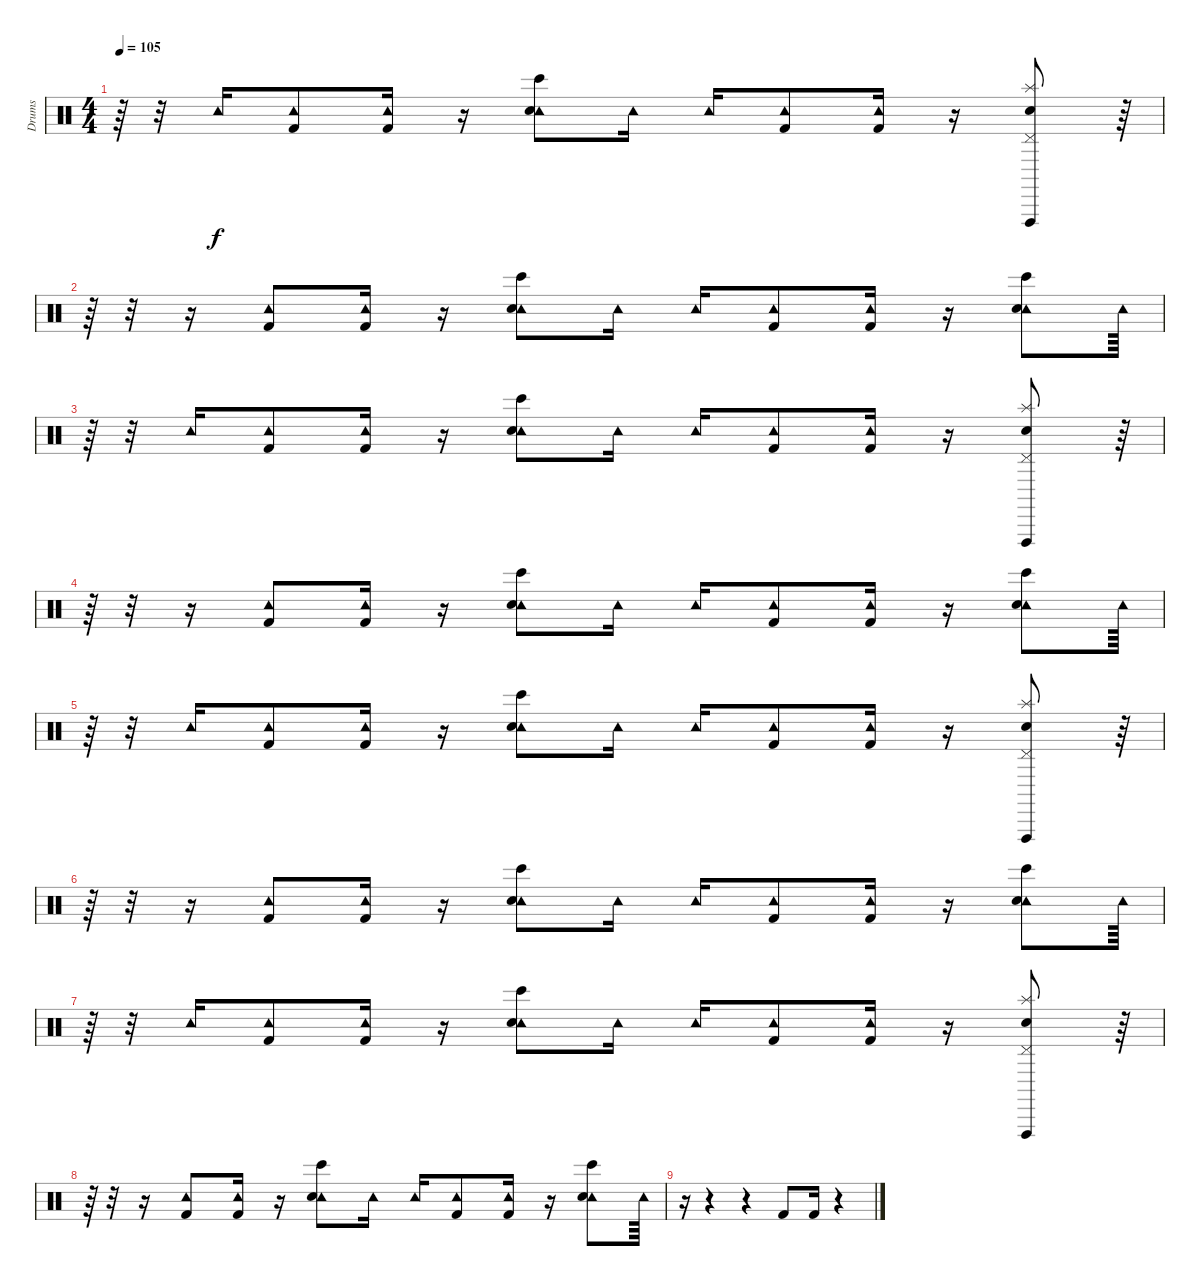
\track ("Drums" "Drums") {instrument percussion}
\staff {score}
\articulation defaults
\ts (4 4)
\tempo 105
\clef neutral
\ks c
r.64{dy f} r.32 "Tambourine (hit)".16 ("Tambourine (hit)" "Kick (hit) 2").8 ("Tambourine (hit)" "Kick (hit) 2").16 r.16 ("Tambourine (hit)" "Electric Snare (hit)" "Bongo High (hit)").8 "Tambourine (hit)".16 "Tambourine (hit)".16 ("Tambourine (hit)" "Kick (hit) 2").8 ("Tambourine (hit)" "Kick (hit) 2").16 r.16 ("Splash (hit)" "Electric Snare (hit)" "Pedal Hi-Hat (hit)" "Vibraslap (hit)").8 r.64 |
r.64 r.32 r.16 ("Tambourine (hit)" "Kick (hit) 2").8 ("Tambourine (hit)" "Kick (hit) 2").16 r.16 ("Tambourine (hit)" "Electric Snare (hit)" "Bongo High (hit)").8 "Tambourine (hit)".16 "Tambourine (hit)".16 ("Tambourine (hit)" "Kick (hit) 2").8 ("Tambourine (hit)" "Kick (hit) 2").16 r.16 ("Tambourine (hit)" "Electric Snare (hit)" "Bongo High (hit)").8 "Tambourine (hit)".64 |
r.64 r.32 "Tambourine (hit)".16 ("Tambourine (hit)" "Kick (hit) 2").8 ("Tambourine (hit)" "Kick (hit) 2").16 r.16 ("Tambourine (hit)" "Electric Snare (hit)" "Bongo High (hit)").8 "Tambourine (hit)".16 "Tambourine (hit)".16 ("Tambourine (hit)" "Kick (hit) 2").8 ("Tambourine (hit)" "Kick (hit) 2").16 r.16 ("Splash (hit)" "Electric Snare (hit)" "Pedal Hi-Hat (hit)" "Vibraslap (hit)").8 r.64 |
r.64 r.32 r.16 ("Tambourine (hit)" "Kick (hit) 2").8 ("Tambourine (hit)" "Kick (hit) 2").16 r.16 ("Tambourine (hit)" "Electric Snare (hit)" "Bongo High (hit)").8 "Tambourine (hit)".16 "Tambourine (hit)".16 ("Tambourine (hit)" "Kick (hit) 2").8 ("Tambourine (hit)" "Kick (hit) 2").16 r.16 ("Tambourine (hit)" "Electric Snare (hit)" "Bongo High (hit)").8 "Tambourine (hit)".64 |
r.64 r.32 "Tambourine (hit)".16 ("Tambourine (hit)" "Kick (hit) 2").8 ("Tambourine (hit)" "Kick (hit) 2").16 r.16 ("Tambourine (hit)" "Electric Snare (hit)" "Bongo High (hit)").8 "Tambourine (hit)".16 "Tambourine (hit)".16 ("Tambourine (hit)" "Kick (hit) 2").8 ("Tambourine (hit)" "Kick (hit) 2").16 r.16 ("Splash (hit)" "Electric Snare (hit)" "Pedal Hi-Hat (hit)" "Vibraslap (hit)").8 r.64 |
r.64 r.32 r.16 ("Tambourine (hit)" "Kick (hit) 2").8 ("Tambourine (hit)" "Kick (hit) 2").16 r.16 ("Tambourine (hit)" "Electric Snare (hit)" "Bongo High (hit)").8 "Tambourine (hit)".16 "Tambourine (hit)".16 ("Tambourine (hit)" "Kick (hit) 2").8 ("Tambourine (hit)" "Kick (hit) 2").16 r.16 ("Tambourine (hit)" "Electric Snare (hit)" "Bongo High (hit)").8 "Tambourine (hit)".64 |
r.64 r.32 "Tambourine (hit)".16 ("Tambourine (hit)" "Kick (hit) 2").8 ("Tambourine (hit)" "Kick (hit) 2").16 r.16 ("Tambourine (hit)" "Electric Snare (hit)" "Bongo High (hit)").8 "Tambourine (hit)".16 "Tambourine (hit)".16 ("Tambourine (hit)" "Kick (hit) 2").8 ("Tambourine (hit)" "Kick (hit) 2").16 r.16 ("Splash (hit)" "Electric Snare (hit)" "Pedal Hi-Hat (hit)" "Vibraslap (hit)").8 r.64 |
r.64 r.32 r.16 ("Tambourine (hit)" "Kick (hit) 2").8 ("Tambourine (hit)" "Kick (hit) 2").16 r.16 ("Tambourine (hit)" "Electric Snare (hit)" "Bongo High (hit)").8 "Tambourine (hit)".16 "Tambourine (hit)".16 ("Tambourine (hit)" "Kick (hit) 2").8 ("Tambourine (hit)" "Kick (hit) 2").16 r.16 ("Tambourine (hit)" "Electric Snare (hit)" "Bongo High (hit)").8 "Tambourine (hit)".64 |
r.16 r.4 r.4 "Kick (hit) 2".8 "Kick (hit) 2".16 r.4
